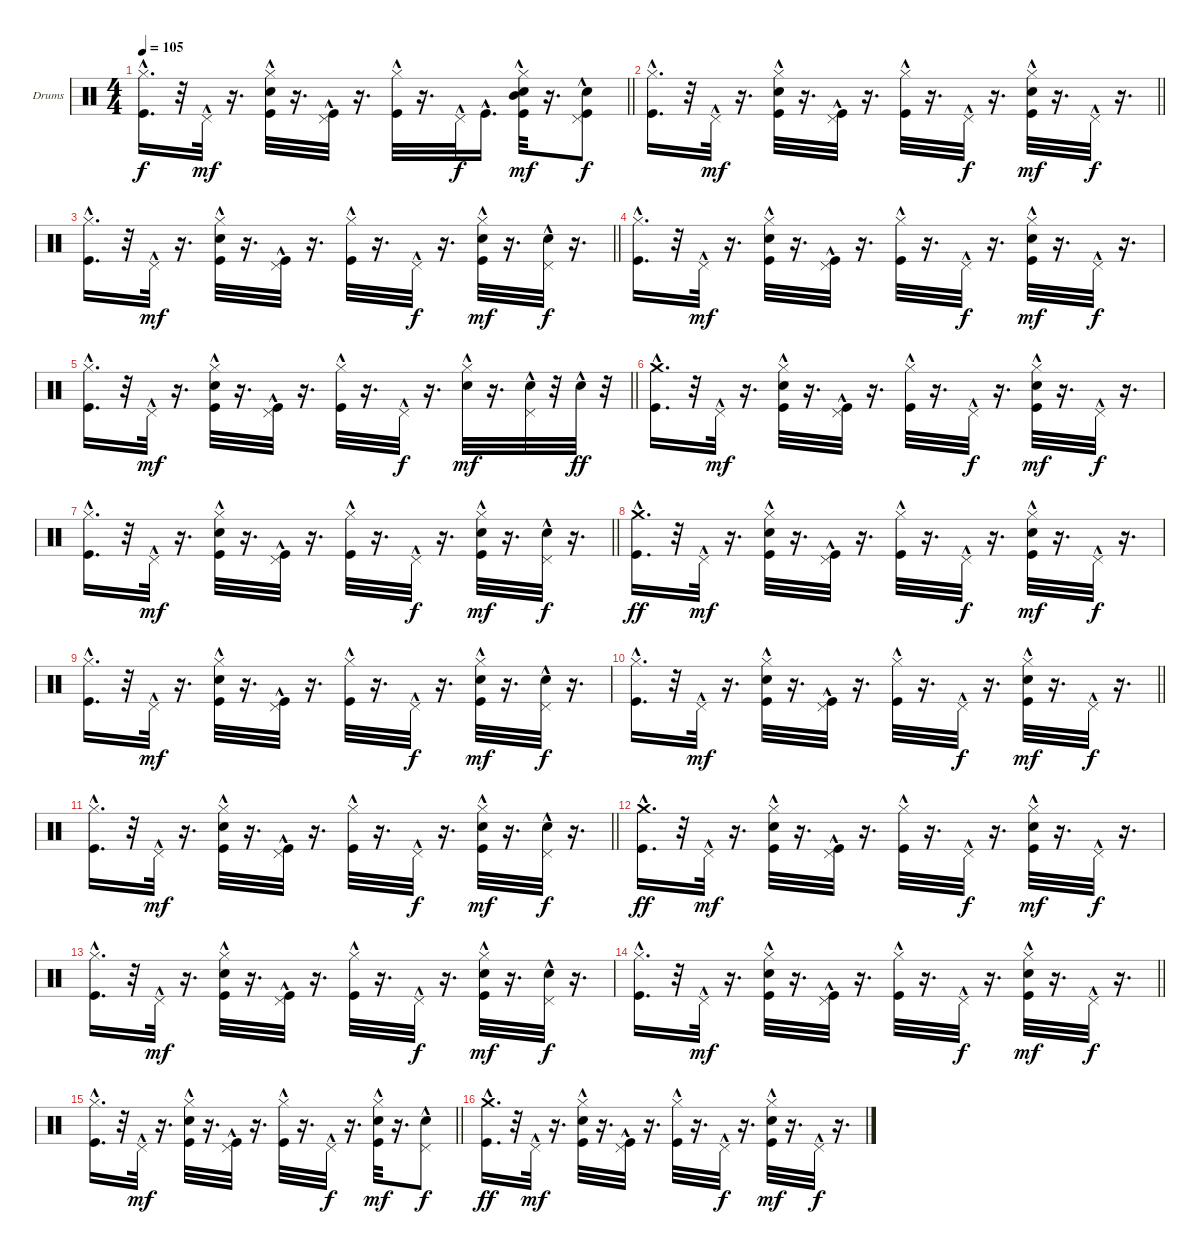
\bracketExtendMode groupsimilarinstruments
\firstSystemTrackNameOrientation horizontal
\otherSystemsTrackNameOrientation horizontal
\track ("Барабаны Г.Гурьянов" "Drums") {instrument percussion}
\staff {score}
\articulation defaults
\ts (4 4)
\tempo 105
\clef neutral
\barLineRight lightlight
\ks c
("Hi-Hat (closed)"{hac} "Kick (hit)"{hac}).16{d dy f} r.32 "Pedal Hi-Hat (hit)"{hac}.32{dy mf} r.16{d} ("Hi-Hat (closed)"{hac} "Snare (hit) 2"{hac} "Kick (hit)"{hac}).32 r.16{d} ("Pedal Hi-Hat (hit)"{hac} "Kick (hit)"{hac}).32 r.16{d} ("Hi-Hat (closed)"{hac} "Kick (hit)"{hac}).32 r.16{d} "Pedal Hi-Hat (hit)"{hac}.32{dy f} "Kick (hit)"{hac}.16{d} ("Hi-Hat (closed)"{hac} "Snare (hit) 2"{hac} "Mid Tom (hit)"{hac} "Kick (hit)"{hac}).32{dy mf} r.16{d} ("Pedal Hi-Hat (hit)"{hac} "Snare (hit) 2"{hac} "Kick (hit)"{hac}).8{dy f} |
\barLineRight lightlight
("Hi-Hat (closed)"{hac} "Kick (hit)"{hac}).16{d} r.32 "Pedal Hi-Hat (hit)"{hac}.32{dy mf} r.16{d} ("Hi-Hat (closed)"{hac} "Snare (hit) 2"{hac} "Kick (hit)"{hac}).32 r.16{d} ("Pedal Hi-Hat (hit)"{hac} "Kick (hit)"{hac}).32 r.16{d} ("Hi-Hat (closed)"{hac} "Kick (hit)"{hac}).32 r.16{d} "Pedal Hi-Hat (hit)"{hac}.32{dy f} r.16{d} ("Hi-Hat (closed)"{hac} "Snare (hit) 2"{hac} "Kick (hit)"{hac}).32{dy mf} r.16{d} "Pedal Hi-Hat (hit)"{hac}.32{dy f} r.16{d} |
\barLineRight lightlight
("Hi-Hat (closed)"{hac} "Kick (hit)"{hac}).16{d} r.32 "Pedal Hi-Hat (hit)"{hac}.32{dy mf} r.16{d} ("Hi-Hat (closed)"{hac} "Snare (hit) 2"{hac} "Kick (hit)"{hac}).32 r.16{d} ("Pedal Hi-Hat (hit)"{hac} "Kick (hit)"{hac}).32 r.16{d} ("Hi-Hat (closed)"{hac} "Kick (hit)"{hac}).32 r.16{d} "Pedal Hi-Hat (hit)"{hac}.32{dy f} r.16{d} ("Hi-Hat (closed)"{hac} "Snare (hit) 2"{hac} "Kick (hit)"{hac}).32{dy mf} r.16{d} ("Pedal Hi-Hat (hit)"{hac} "Snare (hit) 2"{hac}).32{dy f} r.16{d} |
("Hi-Hat (closed)"{hac} "Kick (hit)"{hac}).16{d} r.32 "Pedal Hi-Hat (hit)"{hac}.32{dy mf} r.16{d} ("Hi-Hat (closed)"{hac} "Snare (hit) 2"{hac} "Kick (hit)"{hac}).32 r.16{d} ("Pedal Hi-Hat (hit)"{hac} "Kick (hit)"{hac}).32 r.16{d} ("Hi-Hat (closed)"{hac} "Kick (hit)"{hac}).32 r.16{d} "Pedal Hi-Hat (hit)"{hac}.32{dy f} r.16{d} ("Hi-Hat (closed)"{hac} "Snare (hit) 2"{hac} "Kick (hit)"{hac}).32{dy mf} r.16{d} "Pedal Hi-Hat (hit)"{hac}.32{dy f} r.16{d} |
\barLineRight lightlight
("Hi-Hat (closed)"{hac} "Kick (hit)"{hac}).16{d} r.32 "Pedal Hi-Hat (hit)"{hac}.32{dy mf} r.16{d} ("Hi-Hat (closed)"{hac} "Snare (hit) 2"{hac} "Kick (hit)"{hac}).32 r.16{d} ("Pedal Hi-Hat (hit)"{hac} "Kick (hit)"{hac}).32 r.16{d} ("Hi-Hat (closed)"{hac} "Kick (hit)"{hac}).32 r.16{d} "Pedal Hi-Hat (hit)"{hac}.32{dy f} r.16{d} ("Hi-Hat (closed)"{hac} "Snare (hit) 2"{hac}).32{dy mf} r.16{d} ("Pedal Hi-Hat (hit)"{hac} "Snare (hit) 2"{hac}).32 r.32 "Snare (hit) 2"{hac}.32{dy ff} r.32 |
("Crash medium (hit)"{hac} "Kick (hit)"{hac}).16{d} r.32 "Pedal Hi-Hat (hit)"{hac}.32{dy mf} r.16{d} ("Hi-Hat (closed)"{hac} "Snare (hit) 2"{hac} "Kick (hit)"{hac}).32 r.16{d} ("Pedal Hi-Hat (hit)"{hac} "Kick (hit)"{hac}).32 r.16{d} ("Hi-Hat (closed)"{hac} "Kick (hit)"{hac}).32 r.16{d} "Pedal Hi-Hat (hit)"{hac}.32{dy f} r.16{d} ("Hi-Hat (closed)"{hac} "Snare (hit) 2"{hac} "Kick (hit)"{hac}).32{dy mf} r.16{d} "Pedal Hi-Hat (hit)"{hac}.32{dy f} r.16{d} |
\barLineRight lightlight
("Hi-Hat (closed)"{hac} "Kick (hit)"{hac}).16{d} r.32 "Pedal Hi-Hat (hit)"{hac}.32{dy mf} r.16{d} ("Hi-Hat (closed)"{hac} "Snare (hit) 2"{hac} "Kick (hit)"{hac}).32 r.16{d} ("Pedal Hi-Hat (hit)"{hac} "Kick (hit)"{hac}).32 r.16{d} ("Hi-Hat (closed)"{hac} "Kick (hit)"{hac}).32 r.16{d} "Pedal Hi-Hat (hit)"{hac}.32{dy f} r.16{d} ("Hi-Hat (closed)"{hac} "Snare (hit) 2"{hac} "Kick (hit)"{hac}).32{dy mf} r.16{d} ("Pedal Hi-Hat (hit)"{hac} "Snare (hit) 2"{hac}).32{dy f} r.16{d} |
("Crash medium (hit)"{hac} "Kick (hit)"{hac}).16{d dy ff} r.32 "Pedal Hi-Hat (hit)"{hac}.32{dy mf} r.16{d} ("Hi-Hat (closed)"{hac} "Snare (hit) 2"{hac} "Kick (hit)"{hac}).32 r.16{d} ("Pedal Hi-Hat (hit)"{hac} "Kick (hit)"{hac}).32 r.16{d} ("Hi-Hat (closed)"{hac} "Kick (hit)"{hac}).32 r.16{d} "Pedal Hi-Hat (hit)"{hac}.32{dy f} r.16{d} ("Hi-Hat (closed)"{hac} "Snare (hit) 2"{hac} "Kick (hit)"{hac}).32{dy mf} r.16{d} "Pedal Hi-Hat (hit)"{hac}.32{dy f} r.16{d} |
("Hi-Hat (closed)"{hac} "Kick (hit)"{hac}).16{d} r.32 "Pedal Hi-Hat (hit)"{hac}.32{dy mf} r.16{d} ("Hi-Hat (closed)"{hac} "Snare (hit) 2"{hac} "Kick (hit)"{hac}).32 r.16{d} ("Pedal Hi-Hat (hit)"{hac} "Kick (hit)"{hac}).32 r.16{d} ("Hi-Hat (closed)"{hac} "Kick (hit)"{hac}).32 r.16{d} "Pedal Hi-Hat (hit)"{hac}.32{dy f} r.16{d} ("Hi-Hat (closed)"{hac} "Snare (hit) 2"{hac} "Kick (hit)"{hac}).32{dy mf} r.16{d} ("Pedal Hi-Hat (hit)"{hac} "Snare (hit) 2"{hac}).32{dy f} r.16{d} |
\barLineRight lightlight
("Hi-Hat (closed)"{hac} "Kick (hit)"{hac}).16{d} r.32 "Pedal Hi-Hat (hit)"{hac}.32{dy mf} r.16{d} ("Hi-Hat (closed)"{hac} "Snare (hit) 2"{hac} "Kick (hit)"{hac}).32 r.16{d} ("Pedal Hi-Hat (hit)"{hac} "Kick (hit)"{hac}).32 r.16{d} ("Hi-Hat (closed)"{hac} "Kick (hit)"{hac}).32 r.16{d} "Pedal Hi-Hat (hit)"{hac}.32{dy f} r.16{d} ("Hi-Hat (closed)"{hac} "Snare (hit) 2"{hac} "Kick (hit)"{hac}).32{dy mf} r.16{d} "Pedal Hi-Hat (hit)"{hac}.32{dy f} r.16{d} |
\barLineRight lightlight
("Hi-Hat (closed)"{hac} "Kick (hit)"{hac}).16{d} r.32 "Pedal Hi-Hat (hit)"{hac}.32{dy mf} r.16{d} ("Hi-Hat (closed)"{hac} "Snare (hit) 2"{hac} "Kick (hit)"{hac}).32 r.16{d} ("Pedal Hi-Hat (hit)"{hac} "Kick (hit)"{hac}).32 r.16{d} ("Hi-Hat (closed)"{hac} "Kick (hit)"{hac}).32 r.16{d} "Pedal Hi-Hat (hit)"{hac}.32{dy f} r.16{d} ("Hi-Hat (closed)"{hac} "Snare (hit) 2"{hac} "Kick (hit)"{hac}).32{dy mf} r.16{d} ("Pedal Hi-Hat (hit)"{hac} "Snare (hit) 2"{hac}).32{dy f} r.16{d} |
("Crash medium (hit)"{hac} "Kick (hit)"{hac}).16{d dy ff} r.32 "Pedal Hi-Hat (hit)"{hac}.32{dy mf} r.16{d} ("Hi-Hat (closed)"{hac} "Snare (hit) 2"{hac} "Kick (hit)"{hac}).32 r.16{d} ("Pedal Hi-Hat (hit)"{hac} "Kick (hit)"{hac}).32 r.16{d} ("Hi-Hat (closed)"{hac} "Kick (hit)"{hac}).32 r.16{d} "Pedal Hi-Hat (hit)"{hac}.32{dy f} r.16{d} ("Hi-Hat (closed)"{hac} "Snare (hit) 2"{hac} "Kick (hit)"{hac}).32{dy mf} r.16{d} "Pedal Hi-Hat (hit)"{hac}.32{dy f} r.16{d} |
("Hi-Hat (closed)"{hac} "Kick (hit)"{hac}).16{d} r.32 "Pedal Hi-Hat (hit)"{hac}.32{dy mf} r.16{d} ("Hi-Hat (closed)"{hac} "Snare (hit) 2"{hac} "Kick (hit)"{hac}).32 r.16{d} ("Pedal Hi-Hat (hit)"{hac} "Kick (hit)"{hac}).32 r.16{d} ("Hi-Hat (closed)"{hac} "Kick (hit)"{hac}).32 r.16{d} "Pedal Hi-Hat (hit)"{hac}.32{dy f} r.16{d} ("Hi-Hat (closed)"{hac} "Snare (hit) 2"{hac} "Kick (hit)"{hac}).32{dy mf} r.16{d} ("Pedal Hi-Hat (hit)"{hac} "Snare (hit) 2"{hac}).32{dy f} r.16{d} |
\barLineRight lightlight
("Hi-Hat (closed)"{hac} "Kick (hit)"{hac}).16{d} r.32 "Pedal Hi-Hat (hit)"{hac}.32{dy mf} r.16{d} ("Hi-Hat (closed)"{hac} "Snare (hit) 2"{hac} "Kick (hit)"{hac}).32 r.16{d} ("Pedal Hi-Hat (hit)"{hac} "Kick (hit)"{hac}).32 r.16{d} ("Hi-Hat (closed)"{hac} "Kick (hit)"{hac}).32 r.16{d} "Pedal Hi-Hat (hit)"{hac}.32{dy f} r.16{d} ("Hi-Hat (closed)"{hac} "Snare (hit) 2"{hac} "Kick (hit)"{hac}).32{dy mf} r.16{d} "Pedal Hi-Hat (hit)"{hac}.32{dy f} r.16{d} |
\barLineRight lightlight
("Hi-Hat (closed)"{hac} "Kick (hit)"{hac}).16{d} r.32 "Pedal Hi-Hat (hit)"{hac}.32{dy mf} r.16{d} ("Hi-Hat (closed)"{hac} "Snare (hit) 2"{hac} "Kick (hit)"{hac}).32 r.16{d} ("Pedal Hi-Hat (hit)"{hac} "Kick (hit)"{hac}).32 r.16{d} ("Hi-Hat (closed)"{hac} "Kick (hit)"{hac}).32 r.16{d} "Pedal Hi-Hat (hit)"{hac}.32{dy f} r.16{d} ("Hi-Hat (closed)"{hac} "Snare (hit) 2"{hac} "Kick (hit)"{hac}).32{dy mf} r.16{d} ("Pedal Hi-Hat (hit)"{hac} "Snare (hit) 2"{hac}).8{dy f} |
("Crash medium (hit)"{hac} "Kick (hit)"{hac}).16{d dy ff} r.32 "Pedal Hi-Hat (hit)"{hac}.32{dy mf} r.16{d} ("Hi-Hat (closed)"{hac} "Snare (hit) 2"{hac} "Kick (hit)"{hac}).32 r.16{d} ("Pedal Hi-Hat (hit)"{hac} "Kick (hit)"{hac}).32 r.16{d} ("Hi-Hat (closed)"{hac} "Kick (hit)"{hac}).32 r.16{d} "Pedal Hi-Hat (hit)"{hac}.32{dy f} r.16{d} ("Hi-Hat (closed)"{hac} "Snare (hit) 2"{hac} "Kick (hit)"{hac}).32{dy mf} r.16{d} "Pedal Hi-Hat (hit)"{hac}.32{dy f} r.16{d}
